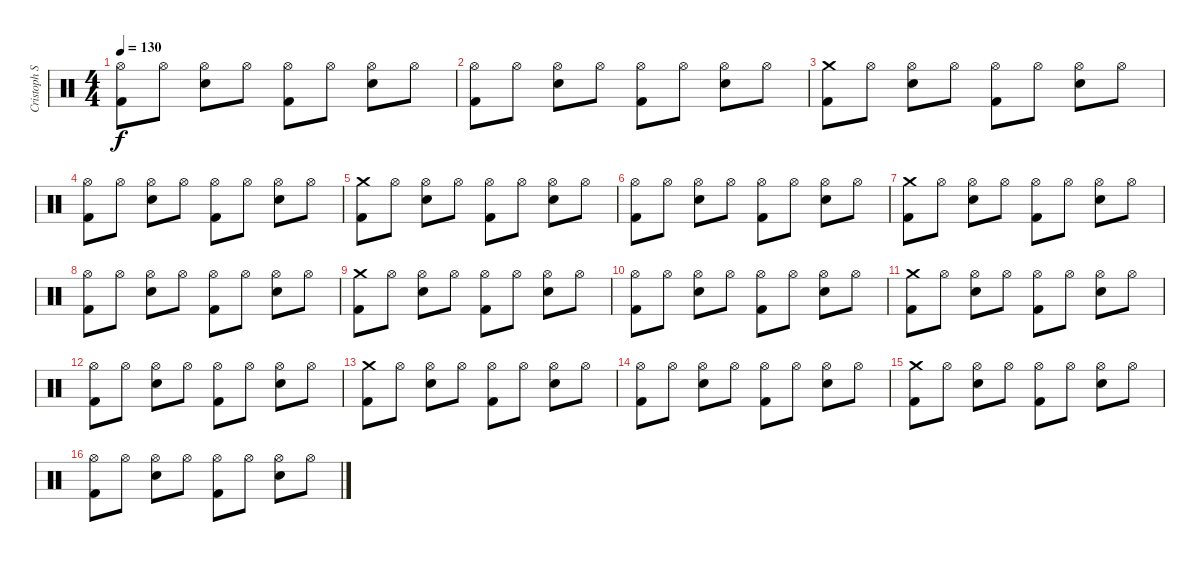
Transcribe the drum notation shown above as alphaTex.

\track ("Cristoph Schneider" "Cristoph S") {instrument percussion}
\staff {score}
\articulation defaults
\ts (4 4)
\tempo 130
\clef neutral
\ks c
("Hi-Hat (open)" "Kick (hit) 2").8{dy f} "Hi-Hat (open)".8 ("Hi-Hat (open)" "Electric Snare (hit)").8 "Hi-Hat (open)".8 ("Hi-Hat (open)" "Kick (hit) 2").8 "Hi-Hat (open)".8 ("Hi-Hat (open)" "Electric Snare (hit)").8 "Hi-Hat (open)".8 |
("Hi-Hat (open)" "Kick (hit) 2").8 "Hi-Hat (open)".8 ("Hi-Hat (open)" "Electric Snare (hit)").8 "Hi-Hat (open)".8 ("Hi-Hat (open)" "Kick (hit) 2").8 "Hi-Hat (open)".8 ("Hi-Hat (open)" "Electric Snare (hit)").8 "Hi-Hat (open)".8 |
("Crash medium (hit)" "Kick (hit) 2").8 "Hi-Hat (open)".8 ("Hi-Hat (open)" "Electric Snare (hit)").8 "Hi-Hat (open)".8 ("Hi-Hat (open)" "Kick (hit) 2").8 "Hi-Hat (open)".8 ("Hi-Hat (open)" "Electric Snare (hit)").8 "Hi-Hat (open)".8 |
("Hi-Hat (open)" "Kick (hit) 2").8 "Hi-Hat (open)".8 ("Hi-Hat (open)" "Electric Snare (hit)").8 "Hi-Hat (open)".8 ("Hi-Hat (open)" "Kick (hit) 2").8 "Hi-Hat (open)".8 ("Hi-Hat (open)" "Electric Snare (hit)").8 "Hi-Hat (open)".8 |
("Crash medium (hit)" "Kick (hit) 2").8 "Hi-Hat (open)".8 ("Hi-Hat (open)" "Electric Snare (hit)").8 "Hi-Hat (open)".8 ("Hi-Hat (open)" "Kick (hit) 2").8 "Hi-Hat (open)".8 ("Hi-Hat (open)" "Electric Snare (hit)").8 "Hi-Hat (open)".8 |
("Hi-Hat (open)" "Kick (hit) 2").8 "Hi-Hat (open)".8 ("Hi-Hat (open)" "Electric Snare (hit)").8 "Hi-Hat (open)".8 ("Hi-Hat (open)" "Kick (hit) 2").8 "Hi-Hat (open)".8 ("Hi-Hat (open)" "Electric Snare (hit)").8 "Hi-Hat (open)".8 |
("Crash medium (hit)" "Kick (hit) 2").8 "Hi-Hat (open)".8 ("Hi-Hat (open)" "Electric Snare (hit)").8 "Hi-Hat (open)".8 ("Hi-Hat (open)" "Kick (hit) 2").8 "Hi-Hat (open)".8 ("Hi-Hat (open)" "Electric Snare (hit)").8 "Hi-Hat (open)".8 |
("Hi-Hat (open)" "Kick (hit) 2").8 "Hi-Hat (open)".8 ("Hi-Hat (open)" "Electric Snare (hit)").8 "Hi-Hat (open)".8 ("Hi-Hat (open)" "Kick (hit) 2").8 "Hi-Hat (open)".8 ("Hi-Hat (open)" "Electric Snare (hit)").8 "Hi-Hat (open)".8 |
("Crash medium (hit)" "Kick (hit) 2").8 "Hi-Hat (open)".8 ("Hi-Hat (open)" "Electric Snare (hit)").8 "Hi-Hat (open)".8 ("Hi-Hat (open)" "Kick (hit) 2").8 "Hi-Hat (open)".8 ("Hi-Hat (open)" "Electric Snare (hit)").8 "Hi-Hat (open)".8 |
("Hi-Hat (open)" "Kick (hit) 2").8 "Hi-Hat (open)".8 ("Hi-Hat (open)" "Electric Snare (hit)").8 "Hi-Hat (open)".8 ("Hi-Hat (open)" "Kick (hit) 2").8 "Hi-Hat (open)".8 ("Hi-Hat (open)" "Electric Snare (hit)").8 "Hi-Hat (open)".8 |
("Crash medium (hit)" "Kick (hit) 2").8 "Hi-Hat (open)".8 ("Hi-Hat (open)" "Electric Snare (hit)").8 "Hi-Hat (open)".8 ("Hi-Hat (open)" "Kick (hit) 2").8 "Hi-Hat (open)".8 ("Hi-Hat (open)" "Electric Snare (hit)").8 "Hi-Hat (open)".8 |
("Hi-Hat (open)" "Kick (hit) 2").8 "Hi-Hat (open)".8 ("Hi-Hat (open)" "Electric Snare (hit)").8 "Hi-Hat (open)".8 ("Hi-Hat (open)" "Kick (hit) 2").8 "Hi-Hat (open)".8 ("Hi-Hat (open)" "Electric Snare (hit)").8 "Hi-Hat (open)".8 |
("Crash medium (hit)" "Kick (hit) 2").8 "Hi-Hat (open)".8 ("Hi-Hat (open)" "Electric Snare (hit)").8 "Hi-Hat (open)".8 ("Hi-Hat (open)" "Kick (hit) 2").8 "Hi-Hat (open)".8 ("Hi-Hat (open)" "Electric Snare (hit)").8 "Hi-Hat (open)".8 |
("Hi-Hat (open)" "Kick (hit) 2").8 "Hi-Hat (open)".8 ("Hi-Hat (open)" "Electric Snare (hit)").8 "Hi-Hat (open)".8 ("Hi-Hat (open)" "Kick (hit) 2").8 "Hi-Hat (open)".8 ("Hi-Hat (open)" "Electric Snare (hit)").8 "Hi-Hat (open)".8 |
("Crash medium (hit)" "Kick (hit) 2").8 "Hi-Hat (open)".8 ("Hi-Hat (open)" "Electric Snare (hit)").8 "Hi-Hat (open)".8 ("Hi-Hat (open)" "Kick (hit) 2").8 "Hi-Hat (open)".8 ("Hi-Hat (open)" "Electric Snare (hit)").8 "Hi-Hat (open)".8 |
("Hi-Hat (open)" "Kick (hit) 2").8 "Hi-Hat (open)".8 ("Hi-Hat (open)" "Electric Snare (hit)").8 "Hi-Hat (open)".8 ("Hi-Hat (open)" "Kick (hit) 2").8 "Hi-Hat (open)".8 ("Hi-Hat (open)" "Electric Snare (hit)").8 "Hi-Hat (open)".8
